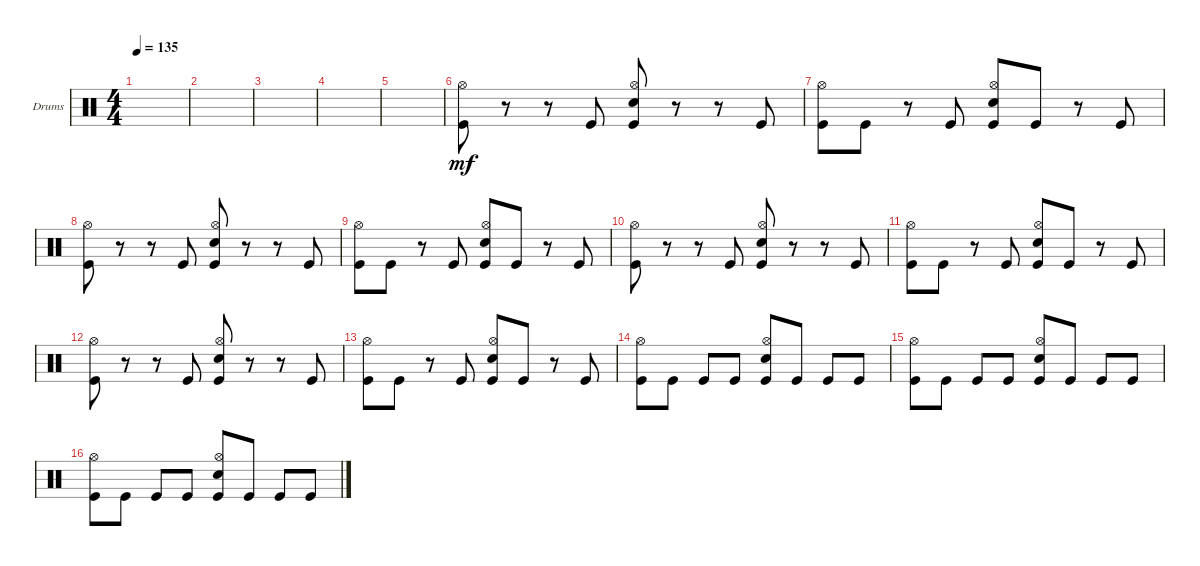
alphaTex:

\defaultSystemsLayout 4
\bracketExtendMode groupsimilarinstruments
\firstSystemTrackNameOrientation horizontal
\otherSystemsTrackNameOrientation horizontal
\track ("Drumkit" "Drums") {instrument percussion}
\staff {score}
\articulation defaults
\ts (4 4)
\tempo 135
\clef neutral
\ks c
|
|
|
|
|
("Kick (hit)" "Hi-Hat (open)").8{dy mf} r.8 r.8 "Kick (hit)".8 ("Kick (hit)" "Snare (hit) 2" "Hi-Hat (open)").8 r.8 r.8 "Kick (hit)".8 |
("Kick (hit)" "Hi-Hat (open)").8 "Kick (hit)".8 r.8 "Kick (hit)".8 ("Kick (hit)" "Snare (hit) 2" "Hi-Hat (open)").8 "Kick (hit)".8 r.8 "Kick (hit)".8 |
("Kick (hit)" "Hi-Hat (open)").8 r.8 r.8 "Kick (hit)".8 ("Kick (hit)" "Snare (hit) 2" "Hi-Hat (open)").8 r.8 r.8 "Kick (hit)".8 |
("Kick (hit)" "Hi-Hat (open)").8 "Kick (hit)".8 r.8 "Kick (hit)".8 ("Kick (hit)" "Snare (hit) 2" "Hi-Hat (open)").8 "Kick (hit)".8 r.8 "Kick (hit)".8 |
("Kick (hit)" "Hi-Hat (open)").8 r.8 r.8 "Kick (hit)".8 ("Kick (hit)" "Snare (hit) 2" "Hi-Hat (open)").8 r.8 r.8 "Kick (hit)".8 |
("Kick (hit)" "Hi-Hat (open)").8 "Kick (hit)".8 r.8 "Kick (hit)".8 ("Kick (hit)" "Snare (hit) 2" "Hi-Hat (open)").8 "Kick (hit)".8 r.8 "Kick (hit)".8 |
("Kick (hit)" "Hi-Hat (open)").8 r.8 r.8 "Kick (hit)".8 ("Kick (hit)" "Snare (hit) 2" "Hi-Hat (open)").8 r.8 r.8 "Kick (hit)".8 |
("Kick (hit)" "Hi-Hat (open)").8 "Kick (hit)".8 r.8 "Kick (hit)".8 ("Kick (hit)" "Snare (hit) 2" "Hi-Hat (open)").8 "Kick (hit)".8 r.8 "Kick (hit)".8 |
("Kick (hit)" "Hi-Hat (open)").8 "Kick (hit)".8 "Kick (hit)".8 "Kick (hit)".8 ("Kick (hit)" "Snare (hit) 2" "Hi-Hat (open)").8 "Kick (hit)".8 "Kick (hit)".8 "Kick (hit)".8 |
("Kick (hit)" "Hi-Hat (open)").8 "Kick (hit)".8 "Kick (hit)".8 "Kick (hit)".8 ("Kick (hit)" "Snare (hit) 2" "Hi-Hat (open)").8 "Kick (hit)".8 "Kick (hit)".8 "Kick (hit)".8 |
("Kick (hit)" "Hi-Hat (open)").8 "Kick (hit)".8 "Kick (hit)".8 "Kick (hit)".8 ("Kick (hit)" "Snare (hit) 2" "Hi-Hat (open)").8 "Kick (hit)".8 "Kick (hit)".8 "Kick (hit)".8
